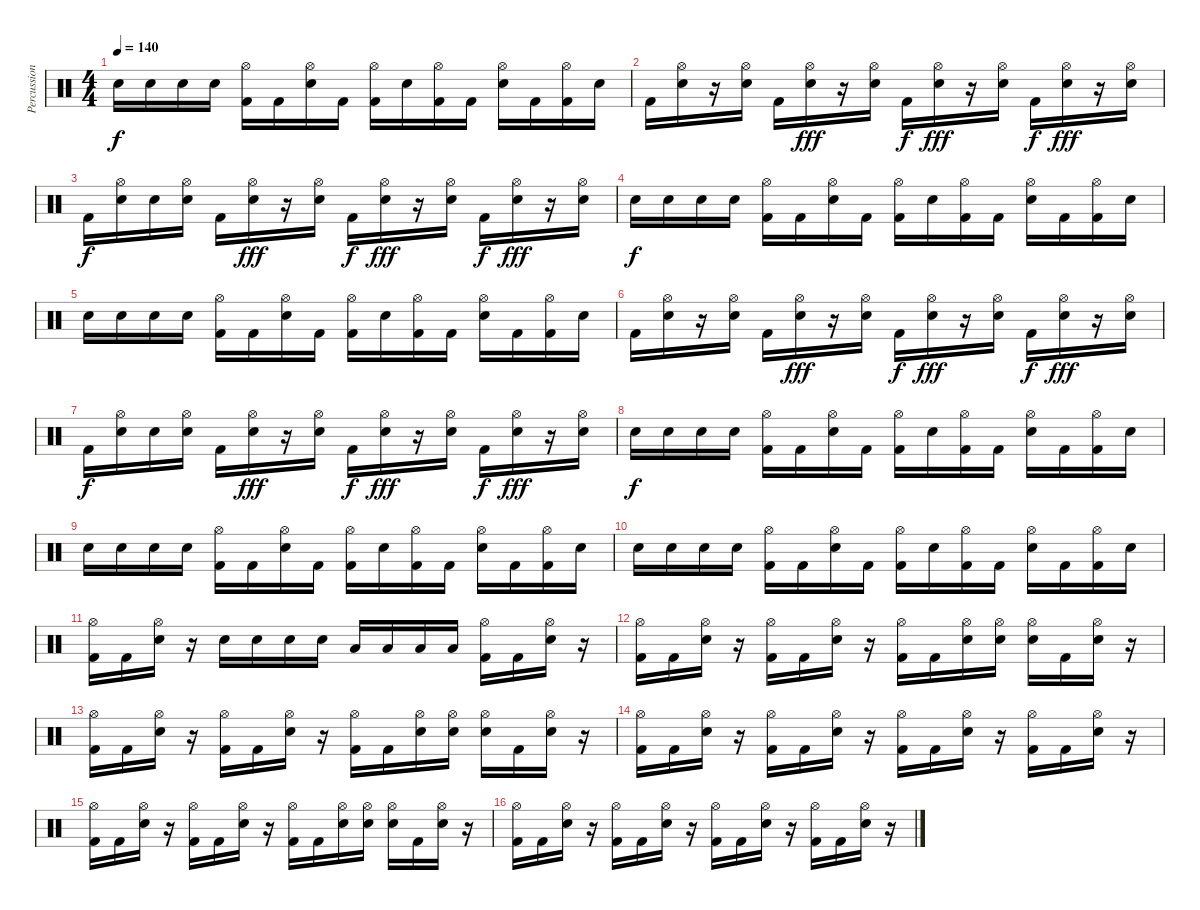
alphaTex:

\track ("Percussions" "Percussion") {instrument percussion}
\staff {score}
\articulation defaults
\ts (4 4)
\tempo 140
\clef neutral
\ks c "Electric Snare (hit)".16{dy f} "Electric Snare (hit)".16 "Electric Snare (hit)".16 "Electric Snare (hit)".16
("Hi-Hat (open)" "Kick (hit) 2").16 "Kick (hit) 2".16 ("Hi-Hat (open)" "Electric Snare (hit)").16 "Kick (hit) 2".16 ("Hi-Hat (open)" "Kick (hit) 2").16 "Electric Snare (hit)".16 ("Hi-Hat (open)" "Kick (hit) 2").16 "Kick (hit) 2".16 ("Hi-Hat (open)" "Electric Snare (hit)").16 "Kick (hit) 2".16 ("Hi-Hat (open)" "Kick (hit) 2").16 "Electric Snare (hit)".16 |
"Kick (hit) 2".16{volume 13} ("Electric Snare (hit)" "Hi-Hat (open)").16 r.16 ("Electric Snare (hit)" "Hi-Hat (open)").16 "Kick (hit) 2".16 ("Electric Snare (hit)" "Hi-Hat (open)").16{dy fff} r.16 ("Electric Snare (hit)" "Hi-Hat (open)").16 "Kick (hit) 2".16{dy f} ("Electric Snare (hit)" "Hi-Hat (open)").16{dy fff} r.16 ("Electric Snare (hit)" "Hi-Hat (open)").16 "Kick (hit) 2".16{dy f} ("Electric Snare (hit)" "Hi-Hat (open)").16{dy fff} r.16 ("Electric Snare (hit)" "Hi-Hat (open)").16 |
"Kick (hit) 2".16{dy f volume 13} ("Electric Snare (hit)" "Hi-Hat (open)").16 "Electric Snare (hit)".16 ("Electric Snare (hit)" "Hi-Hat (open)").16 "Kick (hit) 2".16 ("Electric Snare (hit)" "Hi-Hat (open)").16{dy fff} r.16 ("Electric Snare (hit)" "Hi-Hat (open)").16 "Kick (hit) 2".16{dy f} ("Electric Snare (hit)" "Hi-Hat (open)").16{dy fff} r.16 ("Electric Snare (hit)" "Hi-Hat (open)").16 "Kick (hit) 2".16{dy f} ("Electric Snare (hit)" "Hi-Hat (open)").16{dy fff} r.16 ("Electric Snare (hit)" "Hi-Hat (open)").16 |
"Electric Snare (hit)".16{dy f} "Electric Snare (hit)".16 "Electric Snare (hit)".16 "Electric Snare (hit)".16 ("Hi-Hat (open)" "Kick (hit) 2").16 "Kick (hit) 2".16 ("Hi-Hat (open)" "Electric Snare (hit)").16 "Kick (hit) 2".16 ("Hi-Hat (open)" "Kick (hit) 2").16 "Electric Snare (hit)".16 ("Hi-Hat (open)" "Kick (hit) 2").16 "Kick (hit) 2".16 ("Hi-Hat (open)" "Electric Snare (hit)").16 "Kick (hit) 2".16 ("Hi-Hat (open)" "Kick (hit) 2").16 "Electric Snare (hit)".16 |
"Electric Snare (hit)".16 "Electric Snare (hit)".16 "Electric Snare (hit)".16 "Electric Snare (hit)".16 ("Hi-Hat (open)" "Kick (hit) 2").16 "Kick (hit) 2".16 ("Hi-Hat (open)" "Electric Snare (hit)").16 "Kick (hit) 2".16 ("Hi-Hat (open)" "Kick (hit) 2").16 "Electric Snare (hit)".16 ("Hi-Hat (open)" "Kick (hit) 2").16 "Kick (hit) 2".16 ("Hi-Hat (open)" "Electric Snare (hit)").16 "Kick (hit) 2".16 ("Hi-Hat (open)" "Kick (hit) 2").16 "Electric Snare (hit)".16 |
"Kick (hit) 2".16{volume 13} ("Electric Snare (hit)" "Hi-Hat (open)").16 r.16 ("Electric Snare (hit)" "Hi-Hat (open)").16 "Kick (hit) 2".16 ("Electric Snare (hit)" "Hi-Hat (open)").16{dy fff} r.16 ("Electric Snare (hit)" "Hi-Hat (open)").16 "Kick (hit) 2".16{dy f} ("Electric Snare (hit)" "Hi-Hat (open)").16{dy fff} r.16 ("Electric Snare (hit)" "Hi-Hat (open)").16 "Kick (hit) 2".16{dy f} ("Electric Snare (hit)" "Hi-Hat (open)").16{dy fff} r.16 ("Electric Snare (hit)" "Hi-Hat (open)").16 |
"Kick (hit) 2".16{dy f volume 13} ("Electric Snare (hit)" "Hi-Hat (open)").16 "Electric Snare (hit)".16 ("Electric Snare (hit)" "Hi-Hat (open)").16 "Kick (hit) 2".16 ("Electric Snare (hit)" "Hi-Hat (open)").16{dy fff} r.16 ("Electric Snare (hit)" "Hi-Hat (open)").16 "Kick (hit) 2".16{dy f} ("Electric Snare (hit)" "Hi-Hat (open)").16{dy fff} r.16 ("Electric Snare (hit)" "Hi-Hat (open)").16 "Kick (hit) 2".16{dy f} ("Electric Snare (hit)" "Hi-Hat (open)").16{dy fff} r.16 ("Electric Snare (hit)" "Hi-Hat (open)").16 |
"Electric Snare (hit)".16{dy f} "Electric Snare (hit)".16 "Electric Snare (hit)".16 "Electric Snare (hit)".16 ("Hi-Hat (open)" "Kick (hit) 2").16 "Kick (hit) 2".16 ("Hi-Hat (open)" "Electric Snare (hit)").16 "Kick (hit) 2".16 ("Hi-Hat (open)" "Kick (hit) 2").16 "Electric Snare (hit)".16 ("Hi-Hat (open)" "Kick (hit) 2").16 "Kick (hit) 2".16 ("Hi-Hat (open)" "Electric Snare (hit)").16 "Kick (hit) 2".16 ("Hi-Hat (open)" "Kick (hit) 2").16 "Electric Snare (hit)".16 |
"Electric Snare (hit)".16 "Electric Snare (hit)".16 "Electric Snare (hit)".16 "Electric Snare (hit)".16 ("Hi-Hat (open)" "Kick (hit) 2").16 "Kick (hit) 2".16 ("Hi-Hat (open)" "Electric Snare (hit)").16 "Kick (hit) 2".16 ("Hi-Hat (open)" "Kick (hit) 2").16 "Electric Snare (hit)".16 ("Hi-Hat (open)" "Kick (hit) 2").16 "Kick (hit) 2".16 ("Hi-Hat (open)" "Electric Snare (hit)").16 "Kick (hit) 2".16 ("Hi-Hat (open)" "Kick (hit) 2").16 "Electric Snare (hit)".16 |
"Electric Snare (hit)".16 "Electric Snare (hit)".16 "Electric Snare (hit)".16 "Electric Snare (hit)".16 ("Hi-Hat (open)" "Kick (hit) 2").16 "Kick (hit) 2".16 ("Hi-Hat (open)" "Electric Snare (hit)").16 "Kick (hit) 2".16 ("Hi-Hat (open)" "Kick (hit) 2").16 "Electric Snare (hit)".16 ("Hi-Hat (open)" "Kick (hit) 2").16 "Kick (hit) 2".16 ("Hi-Hat (open)" "Electric Snare (hit)").16 "Kick (hit) 2".16 ("Hi-Hat (open)" "Kick (hit) 2").16 "Electric Snare (hit)".16 |
("Kick (hit) 2" "Hi-Hat (open)").16 "Kick (hit) 2".16 ("Electric Snare (hit)" "Hi-Hat (open)").16 r.16 "Electric Snare (hit)".16 "Electric Snare (hit)".16 "Electric Snare (hit)".16 "Electric Snare (hit)".16 "Low Tom (hit)".16 "Low Tom (hit)".16 "Low Tom (hit)".16 "Low Tom (hit)".16 ("Kick (hit) 2" "Hi-Hat (open)").16 "Kick (hit) 2".16 ("Electric Snare (hit)" "Hi-Hat (open)").16 r.16 |
("Kick (hit) 2" "Hi-Hat (open)").16 "Kick (hit) 2".16 ("Electric Snare (hit)" "Hi-Hat (open)").16 r.16 ("Kick (hit) 2" "Hi-Hat (open)").16 "Kick (hit) 2".16 ("Electric Snare (hit)" "Hi-Hat (open)").16 r.16 ("Kick (hit) 2" "Hi-Hat (open)").16 "Kick (hit) 2".16 ("Electric Snare (hit)" "Hi-Hat (open)").16 ("Electric Snare (hit)" "Hi-Hat (open)").16 ("Electric Snare (hit)" "Hi-Hat (open)").16 "Kick (hit) 2".16 ("Electric Snare (hit)" "Hi-Hat (open)").16 r.16 |
("Kick (hit) 2" "Hi-Hat (open)").16 "Kick (hit) 2".16 ("Electric Snare (hit)" "Hi-Hat (open)").16 r.16 ("Kick (hit) 2" "Hi-Hat (open)").16 "Kick (hit) 2".16 ("Electric Snare (hit)" "Hi-Hat (open)").16 r.16 ("Kick (hit) 2" "Hi-Hat (open)").16 "Kick (hit) 2".16 ("Electric Snare (hit)" "Hi-Hat (open)").16 ("Electric Snare (hit)" "Hi-Hat (open)").16 ("Electric Snare (hit)" "Hi-Hat (open)").16 "Kick (hit) 2".16 ("Electric Snare (hit)" "Hi-Hat (open)").16 r.16 |
("Kick (hit) 2" "Hi-Hat (open)").16 "Kick (hit) 2".16 ("Electric Snare (hit)" "Hi-Hat (open)").16 r.16 ("Kick (hit) 2" "Hi-Hat (open)").16 "Kick (hit) 2".16 ("Electric Snare (hit)" "Hi-Hat (open)").16 r.16 ("Kick (hit) 2" "Hi-Hat (open)").16 "Kick (hit) 2".16 ("Electric Snare (hit)" "Hi-Hat (open)").16 r.16 ("Kick (hit) 2" "Hi-Hat (open)").16 "Kick (hit) 2".16 ("Electric Snare (hit)" "Hi-Hat (open)").16 r.16 |
("Kick (hit) 2" "Hi-Hat (open)").16 "Kick (hit) 2".16 ("Electric Snare (hit)" "Hi-Hat (open)").16 r.16 ("Kick (hit) 2" "Hi-Hat (open)").16 "Kick (hit) 2".16 ("Electric Snare (hit)" "Hi-Hat (open)").16 r.16 ("Kick (hit) 2" "Hi-Hat (open)").16 "Kick (hit) 2".16 ("Electric Snare (hit)" "Hi-Hat (open)").16 ("Electric Snare (hit)" "Hi-Hat (open)").16 ("Electric Snare (hit)" "Hi-Hat (open)").16 "Kick (hit) 2".16 ("Electric Snare (hit)" "Hi-Hat (open)").16 r.16 |
("Kick (hit) 2" "Hi-Hat (open)").16 "Kick (hit) 2".16 ("Electric Snare (hit)" "Hi-Hat (open)").16 r.16 ("Kick (hit) 2" "Hi-Hat (open)").16 "Kick (hit) 2".16 ("Electric Snare (hit)" "Hi-Hat (open)").16 r.16 ("Kick (hit) 2" "Hi-Hat (open)").16 "Kick (hit) 2".16 ("Electric Snare (hit)" "Hi-Hat (open)").16 r.16 ("Kick (hit) 2" "Hi-Hat (open)").16 "Kick (hit) 2".16 ("Electric Snare (hit)" "Hi-Hat (open)").16 r.16
